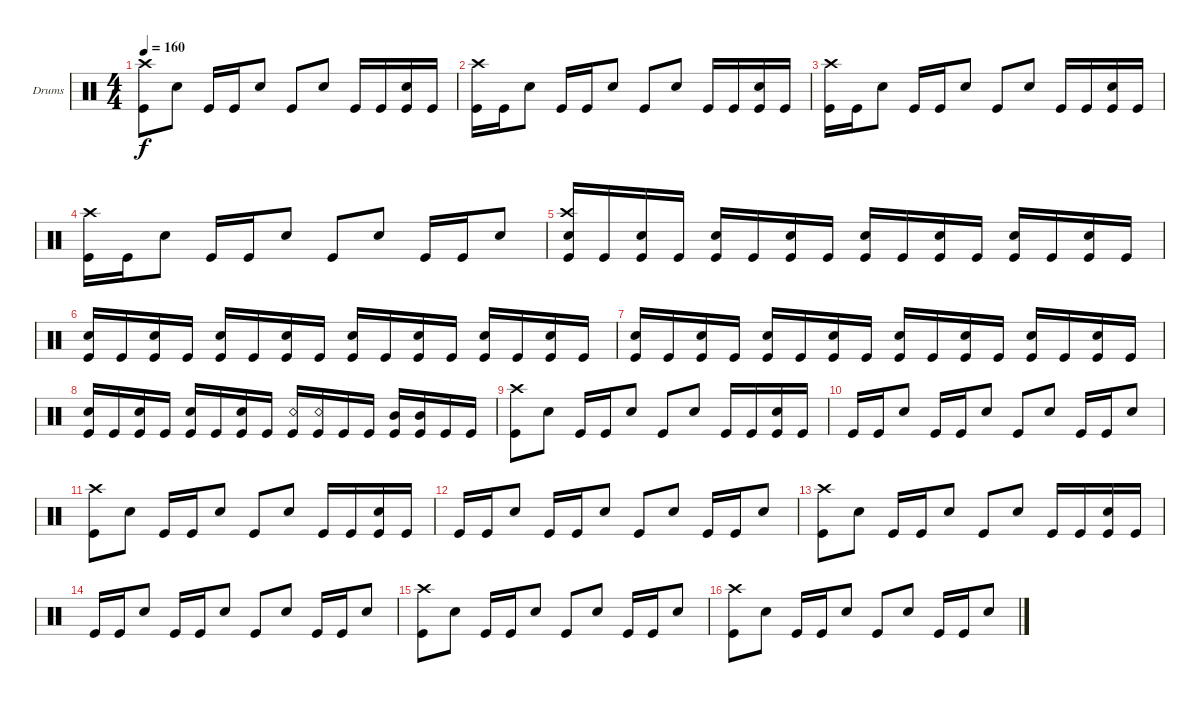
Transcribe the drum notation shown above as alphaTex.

\defaultSystemsLayout 4
\bracketExtendMode groupsimilarinstruments
\firstSystemTrackNameOrientation horizontal
\otherSystemsTrackNameOrientation horizontal
\track ("Drumkit" "Drums") {instrument percussion}
\staff {score}
\articulation defaults
\ts (4 4)
\tempo 160
\clef neutral
\ks c
("Kick (hit)" "Crash high (hit)").8{dy f} "Snare (hit) 2".8 "Kick (hit)".16 "Kick (hit)".16 "Snare (hit) 2".8 "Kick (hit)".8 "Snare (hit) 2".8 "Kick (hit)".16 "Kick (hit)".16 ("Kick (hit)" "Snare (hit) 2").16 "Kick (hit)".16 |
("Kick (hit)" "Crash high (hit)").16 "Kick (hit)".16 "Snare (hit) 2".8 "Kick (hit)".16 "Kick (hit)".16 "Snare (hit) 2".8 "Kick (hit)".8 "Snare (hit) 2".8 "Kick (hit)".16 "Kick (hit)".16 ("Kick (hit)" "Snare (hit) 2").16 "Kick (hit)".16 |
("Kick (hit)" "Crash high (hit)").16 "Kick (hit)".16 "Snare (hit) 2".8 "Kick (hit)".16 "Kick (hit)".16 "Snare (hit) 2".8 "Kick (hit)".8 "Snare (hit) 2".8 "Kick (hit)".16 "Kick (hit)".16 ("Snare (hit) 2" "Kick (hit)").16 "Kick (hit)".16 |
("Kick (hit)" "Crash high (hit)").16 "Kick (hit)".16 "Snare (hit) 2".8 "Kick (hit)".16 "Kick (hit)".16 "Snare (hit) 2".8 "Kick (hit)".8 "Snare (hit) 2".8 "Kick (hit)".16 "Kick (hit)".16 "Snare (hit) 2".8 |
("Snare (hit) 2" "Crash high (hit)" "Kick (hit)").16 "Kick (hit)".16 ("Snare (hit) 2" "Kick (hit)").16 "Kick (hit)".16 ("Snare (hit) 2" "Kick (hit)").16 "Kick (hit)".16 ("Snare (hit) 2" "Kick (hit)").16 "Kick (hit)".16 ("Snare (hit) 2" "Kick (hit)").16 "Kick (hit)".16 ("Snare (hit) 2" "Kick (hit)").16 "Kick (hit)".16 ("Snare (hit) 2" "Kick (hit)").16 "Kick (hit)".16 ("Snare (hit) 2" "Kick (hit)").16 "Kick (hit)".16 |
("Snare (hit) 2" "Kick (hit)").16 "Kick (hit)".16 ("Snare (hit) 2" "Kick (hit)").16 "Kick (hit)".16 ("Snare (hit) 2" "Kick (hit)").16 "Kick (hit)".16 ("Snare (hit) 2" "Kick (hit)").16 "Kick (hit)".16 ("Snare (hit) 2" "Kick (hit)").16 "Kick (hit)".16 ("Snare (hit) 2" "Kick (hit)").16 "Kick (hit)".16 ("Snare (hit) 2" "Kick (hit)").16 "Kick (hit)".16 ("Snare (hit) 2" "Kick (hit)").16 "Kick (hit)".16 |
("Snare (hit) 2" "Kick (hit)").16 "Kick (hit)".16 ("Snare (hit) 2" "Kick (hit)").16 "Kick (hit)".16 ("Snare (hit) 2" "Kick (hit)").16 "Kick (hit)".16 ("Snare (hit) 2" "Kick (hit)").16 "Kick (hit)".16 ("Snare (hit) 2" "Kick (hit)").16 "Kick (hit)".16 ("Snare (hit) 2" "Kick (hit)").16 "Kick (hit)".16 ("Snare (hit) 2" "Kick (hit)").16 "Kick (hit)".16 ("Snare (hit) 2" "Kick (hit)").16 "Kick (hit)".16 |
("Snare (hit) 2" "Kick (hit)").16 "Kick (hit)".16 ("Snare (hit) 2" "Kick (hit)").16 "Kick (hit)".16 ("Snare (hit) 2" "Kick (hit)").16 "Kick (hit)".16 ("Snare (hit) 2" "Kick (hit)").16 "Kick (hit)".16 ("Kick (hit)" "Snare (rim shot)").16 ("Kick (hit)" "Snare (rim shot)").16 "Kick (hit)".16 "Kick (hit)".16 ("Kick (hit)" "Mid Tom (hit)").16 ("Kick (hit)" "Mid Tom (hit)").16 "Kick (hit)".16 "Kick (hit)".16 |
("Kick (hit)" "Crash high (hit)").8 "Snare (hit) 2".8 "Kick (hit)".16 "Kick (hit)".16 "Snare (hit) 2".8 "Kick (hit)".8 "Snare (hit) 2".8 "Kick (hit)".16 "Kick (hit)".16 ("Snare (hit) 2" "Kick (hit)").16 "Kick (hit)".16 |
"Kick (hit)".16 "Kick (hit)".16 "Snare (hit) 2".8 "Kick (hit)".16 "Kick (hit)".16 "Snare (hit) 2".8 "Kick (hit)".8 "Snare (hit) 2".8 "Kick (hit)".16 "Kick (hit)".16 "Snare (hit) 2".8 |
("Kick (hit)" "Crash high (hit)").8 "Snare (hit) 2".8 "Kick (hit)".16 "Kick (hit)".16 "Snare (hit) 2".8 "Kick (hit)".8 "Snare (hit) 2".8 "Kick (hit)".16 "Kick (hit)".16 ("Snare (hit) 2" "Kick (hit)").16 "Kick (hit)".16 |
"Kick (hit)".16 "Kick (hit)".16 "Snare (hit) 2".8 "Kick (hit)".16 "Kick (hit)".16 "Snare (hit) 2".8 "Kick (hit)".8 "Snare (hit) 2".8 "Kick (hit)".16 "Kick (hit)".16 "Snare (hit) 2".8 |
("Kick (hit)" "Crash high (hit)").8 "Snare (hit) 2".8 "Kick (hit)".16 "Kick (hit)".16 "Snare (hit) 2".8 "Kick (hit)".8 "Snare (hit) 2".8 "Kick (hit)".16 "Kick (hit)".16 ("Snare (hit) 2" "Kick (hit)").16 "Kick (hit)".16 |
"Kick (hit)".16 "Kick (hit)".16 "Snare (hit) 2".8 "Kick (hit)".16 "Kick (hit)".16 "Snare (hit) 2".8 "Kick (hit)".8 "Snare (hit) 2".8 "Kick (hit)".16 "Kick (hit)".16 "Snare (hit) 2".8 |
("Kick (hit)" "Crash high (hit)").8 "Snare (hit) 2".8 "Kick (hit)".16 "Kick (hit)".16 "Snare (hit) 2".8 "Kick (hit)".8 "Snare (hit) 2".8 "Kick (hit)".16 "Kick (hit)".16 "Snare (hit) 2".8 |
("Kick (hit)" "Crash high (hit)").8 "Snare (hit) 2".8 "Kick (hit)".16 "Kick (hit)".16 "Snare (hit) 2".8 "Kick (hit)".8 "Snare (hit) 2".8 "Kick (hit)".16 "Kick (hit)".16 "Snare (hit) 2".8
